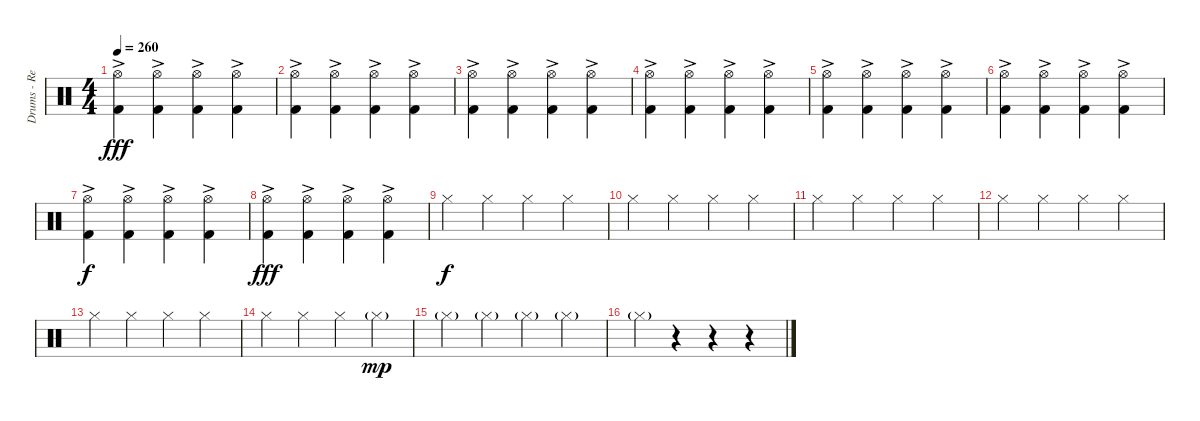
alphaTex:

\track ("Drums - Re'a Mochiach" "Drums - Re") {instrument percussion}
\staff {score}
\articulation defaults
\ts (4 4)
\tempo 260
\clef neutral
\ks c
("Hi-Hat (open)"{ac} "Kick (hit) 2").4{dy fff} ("Hi-Hat (open)"{ac} "Kick (hit) 2").4 ("Hi-Hat (open)"{ac} "Kick (hit) 2").4 ("Hi-Hat (open)"{ac} "Kick (hit) 2").4 |
("Hi-Hat (open)"{ac} "Kick (hit) 2").4 ("Hi-Hat (open)"{ac} "Kick (hit) 2").4 ("Hi-Hat (open)"{ac} "Kick (hit) 2").4 ("Hi-Hat (open)"{ac} "Kick (hit) 2").4 |
("Hi-Hat (open)"{ac} "Kick (hit) 2"{ac}).4 ("Hi-Hat (open)"{ac} "Kick (hit) 2"{ac}).4 ("Hi-Hat (open)"{ac} "Kick (hit) 2"{ac}).4 ("Hi-Hat (open)"{ac} "Kick (hit) 2"{ac}).4 |
("Hi-Hat (open)"{ac} "Kick (hit) 2"{ac}).4 ("Hi-Hat (open)"{ac} "Kick (hit) 2"{ac}).4 ("Hi-Hat (open)"{ac} "Kick (hit) 2"{ac}).4 ("Hi-Hat (open)"{ac} "Kick (hit) 2"{ac}).4 |
("Hi-Hat (open)"{ac} "Kick (hit) 2"{ac}).4 ("Hi-Hat (open)"{ac} "Kick (hit) 2"{ac}).4 ("Hi-Hat (open)"{ac} "Kick (hit) 2"{ac}).4 ("Hi-Hat (open)"{ac} "Kick (hit) 2"{ac}).4 |
("Hi-Hat (open)"{ac} "Kick (hit) 2"{ac}).4 ("Hi-Hat (open)"{ac} "Kick (hit) 2"{ac}).4 ("Hi-Hat (open)"{ac} "Kick (hit) 2"{ac}).4 ("Hi-Hat (open)"{ac} "Kick (hit) 2"{ac}).4 |
("Hi-Hat (open)"{ac} "Kick (hit) 2").4{dy f} ("Hi-Hat (open)"{ac} "Kick (hit) 2").4 ("Hi-Hat (open)"{ac} "Kick (hit) 2").4 ("Hi-Hat (open)"{ac} "Kick (hit) 2").4 |
("Hi-Hat (open)"{ac} "Kick (hit) 2"{ac}).4{dy fff} ("Hi-Hat (open)"{ac} "Kick (hit) 2"{ac}).4 ("Hi-Hat (open)"{ac} "Kick (hit) 2"{ac}).4 ("Hi-Hat (open)"{ac} "Kick (hit) 2"{ac}).4 |
"Hi-Hat (closed)".4{dy f} "Hi-Hat (closed)".4 "Hi-Hat (closed)".4 "Hi-Hat (closed)".4 |
"Hi-Hat (closed)".4 "Hi-Hat (closed)".4 "Hi-Hat (closed)".4 "Hi-Hat (closed)".4 |
"Hi-Hat (closed)".4 "Hi-Hat (closed)".4 "Hi-Hat (closed)".4 "Hi-Hat (closed)".4 |
"Hi-Hat (closed)".4 "Hi-Hat (closed)".4 "Hi-Hat (closed)".4 "Hi-Hat (closed)".4 |
"Hi-Hat (closed)".4 "Hi-Hat (closed)".4 "Hi-Hat (closed)".4 "Hi-Hat (closed)".4 |
"Hi-Hat (closed)".4 "Hi-Hat (closed)".4 "Hi-Hat (closed)".4 "Hi-Hat (closed)"{g}.4{dy mp} |
"Hi-Hat (closed)"{g}.4 "Hi-Hat (closed)"{g}.4 "Hi-Hat (closed)"{g}.4 "Hi-Hat (closed)"{g}.4 |
"Hi-Hat (closed)"{g}.4 r.4 r.4 r.4
